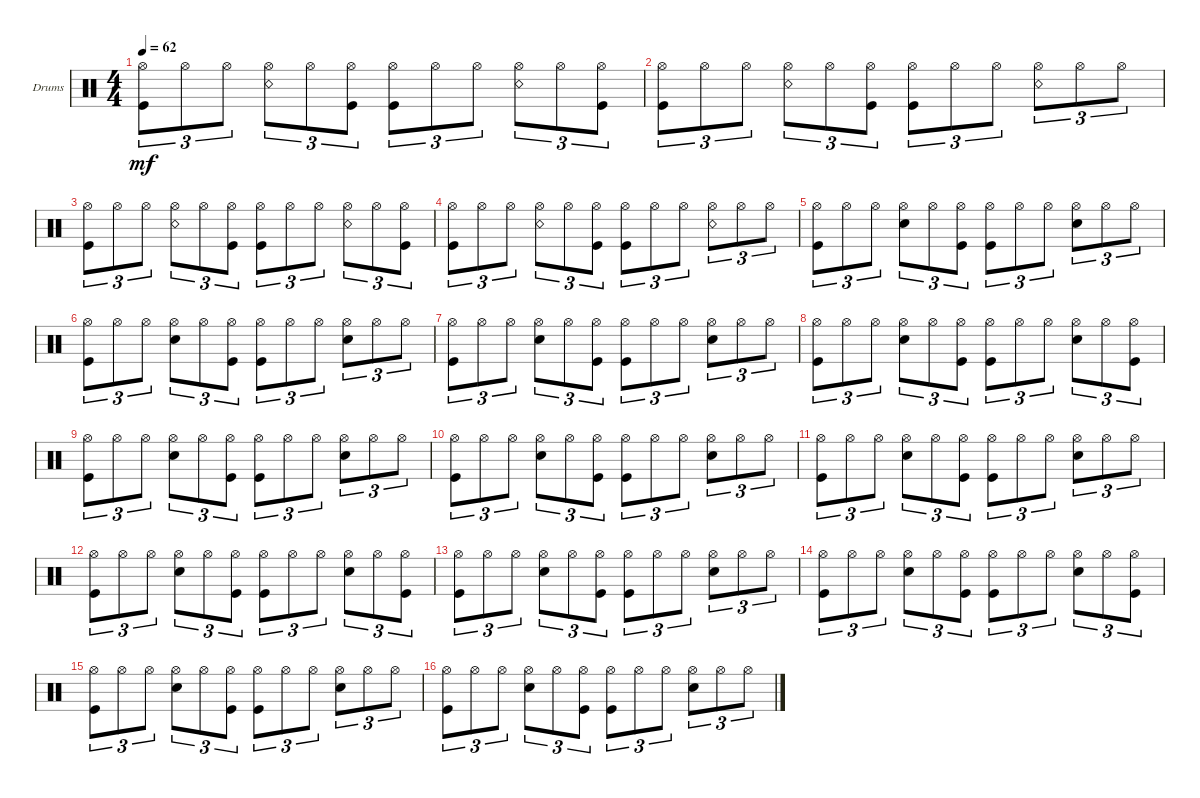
\defaultSystemsLayout 4
\bracketExtendMode groupsimilarinstruments
\firstSystemTrackNameOrientation horizontal
\otherSystemsTrackNameOrientation horizontal
\track ("Drumkit" "Drums") {instrument percussion}
\staff {score}
\articulation defaults
\ts (4 4)
\tempo 62
\clef neutral
\ks c
("Hi-Hat (open)" "Kick (hit)").8{tu (3 2) dy mf} "Hi-Hat (open)".8{tu (3 2)} "Hi-Hat (open)".8{tu (3 2)} ("Hi-Hat (open)" "Snare (rim shot)").8{tu (3 2)} "Hi-Hat (open)".8{tu (3 2)} ("Hi-Hat (open)" "Kick (hit)").8{tu (3 2)} ("Hi-Hat (open)" "Kick (hit)").8{tu (3 2)} "Hi-Hat (open)".8{tu (3 2)} "Hi-Hat (open)".8{tu (3 2)} ("Hi-Hat (open)" "Snare (rim shot)").8{tu (3 2)} "Hi-Hat (open)".8{tu (3 2)} ("Hi-Hat (open)" "Kick (hit)").8{tu (3 2)} |
("Hi-Hat (open)" "Kick (hit)").8{tu (3 2)} "Hi-Hat (open)".8{tu (3 2)} "Hi-Hat (open)".8{tu (3 2)} ("Hi-Hat (open)" "Snare (rim shot)").8{tu (3 2)} "Hi-Hat (open)".8{tu (3 2)} ("Hi-Hat (open)" "Kick (hit)").8{tu (3 2)} ("Hi-Hat (open)" "Kick (hit)").8{tu (3 2)} "Hi-Hat (open)".8{tu (3 2)} "Hi-Hat (open)".8{tu (3 2)} ("Hi-Hat (open)" "Snare (rim shot)").8{tu (3 2)} "Hi-Hat (open)".8{tu (3 2)} "Hi-Hat (open)".8{tu (3 2)} |
("Hi-Hat (open)" "Kick (hit)").8{tu (3 2)} "Hi-Hat (open)".8{tu (3 2)} "Hi-Hat (open)".8{tu (3 2)} ("Hi-Hat (open)" "Snare (rim shot)").8{tu (3 2)} "Hi-Hat (open)".8{tu (3 2)} ("Hi-Hat (open)" "Kick (hit)").8{tu (3 2)} ("Hi-Hat (open)" "Kick (hit)").8{tu (3 2)} "Hi-Hat (open)".8{tu (3 2)} "Hi-Hat (open)".8{tu (3 2)} ("Hi-Hat (open)" "Snare (rim shot)").8{tu (3 2)} "Hi-Hat (open)".8{tu (3 2)} ("Hi-Hat (open)" "Kick (hit)").8{tu (3 2)} |
("Hi-Hat (open)" "Kick (hit)").8{tu (3 2)} "Hi-Hat (open)".8{tu (3 2)} "Hi-Hat (open)".8{tu (3 2)} ("Hi-Hat (open)" "Snare (rim shot)").8{tu (3 2)} "Hi-Hat (open)".8{tu (3 2)} ("Hi-Hat (open)" "Kick (hit)").8{tu (3 2)} ("Hi-Hat (open)" "Kick (hit)").8{tu (3 2)} "Hi-Hat (open)".8{tu (3 2)} "Hi-Hat (open)".8{tu (3 2)} ("Hi-Hat (open)" "Snare (rim shot)").8{tu (3 2)} "Hi-Hat (open)".8{tu (3 2)} "Hi-Hat (open)".8{tu (3 2)} |
("Hi-Hat (open)" "Kick (hit)").8{tu (3 2)} "Hi-Hat (open)".8{tu (3 2)} "Hi-Hat (open)".8{tu (3 2)} ("Hi-Hat (open)" "Snare (hit) 2").8{tu (3 2)} "Hi-Hat (open)".8{tu (3 2)} ("Hi-Hat (open)" "Kick (hit)").8{tu (3 2)} ("Hi-Hat (open)" "Kick (hit)").8{tu (3 2)} "Hi-Hat (open)".8{tu (3 2)} "Hi-Hat (open)".8{tu (3 2)} ("Hi-Hat (open)" "Snare (hit) 2").8{tu (3 2)} "Hi-Hat (open)".8{tu (3 2)} "Hi-Hat (open)".8{tu (3 2)} |
("Hi-Hat (open)" "Kick (hit)").8{tu (3 2)} "Hi-Hat (open)".8{tu (3 2)} "Hi-Hat (open)".8{tu (3 2)} ("Hi-Hat (open)" "Snare (hit) 2").8{tu (3 2)} "Hi-Hat (open)".8{tu (3 2)} ("Hi-Hat (open)" "Kick (hit)").8{tu (3 2)} ("Hi-Hat (open)" "Kick (hit)").8{tu (3 2)} "Hi-Hat (open)".8{tu (3 2)} "Hi-Hat (open)".8{tu (3 2)} ("Hi-Hat (open)" "Snare (hit) 2").8{tu (3 2)} "Hi-Hat (open)".8{tu (3 2)} "Hi-Hat (open)".8{tu (3 2)} |
("Hi-Hat (open)" "Kick (hit)").8{tu (3 2)} "Hi-Hat (open)".8{tu (3 2)} "Hi-Hat (open)".8{tu (3 2)} ("Hi-Hat (open)" "Snare (hit) 2").8{tu (3 2)} "Hi-Hat (open)".8{tu (3 2)} ("Hi-Hat (open)" "Kick (hit)").8{tu (3 2)} ("Hi-Hat (open)" "Kick (hit)").8{tu (3 2)} "Hi-Hat (open)".8{tu (3 2)} "Hi-Hat (open)".8{tu (3 2)} ("Hi-Hat (open)" "Snare (hit) 2").8{tu (3 2)} "Hi-Hat (open)".8{tu (3 2)} "Hi-Hat (open)".8{tu (3 2)} |
("Hi-Hat (open)" "Kick (hit)").8{tu (3 2)} "Hi-Hat (open)".8{tu (3 2)} "Hi-Hat (open)".8{tu (3 2)} ("Hi-Hat (open)" "Snare (hit) 2").8{tu (3 2)} "Hi-Hat (open)".8{tu (3 2)} ("Hi-Hat (open)" "Kick (hit)").8{tu (3 2)} ("Hi-Hat (open)" "Kick (hit)").8{tu (3 2)} "Hi-Hat (open)".8{tu (3 2)} "Hi-Hat (open)".8{tu (3 2)} ("Hi-Hat (open)" "Snare (hit) 2").8{tu (3 2)} "Hi-Hat (open)".8{tu (3 2)} ("Hi-Hat (open)" "Kick (hit)").8{tu (3 2)} |
("Hi-Hat (open)" "Kick (hit)").8{tu (3 2)} "Hi-Hat (open)".8{tu (3 2)} "Hi-Hat (open)".8{tu (3 2)} ("Hi-Hat (open)" "Snare (hit) 2").8{tu (3 2)} "Hi-Hat (open)".8{tu (3 2)} ("Hi-Hat (open)" "Kick (hit)").8{tu (3 2)} ("Hi-Hat (open)" "Kick (hit)").8{tu (3 2)} "Hi-Hat (open)".8{tu (3 2)} "Hi-Hat (open)".8{tu (3 2)} ("Hi-Hat (open)" "Snare (hit) 2").8{tu (3 2)} "Hi-Hat (open)".8{tu (3 2)} "Hi-Hat (open)".8{tu (3 2)} |
("Hi-Hat (open)" "Kick (hit)").8{tu (3 2)} "Hi-Hat (open)".8{tu (3 2)} "Hi-Hat (open)".8{tu (3 2)} ("Hi-Hat (open)" "Snare (hit) 2").8{tu (3 2)} "Hi-Hat (open)".8{tu (3 2)} ("Hi-Hat (open)" "Kick (hit)").8{tu (3 2)} ("Hi-Hat (open)" "Kick (hit)").8{tu (3 2)} "Hi-Hat (open)".8{tu (3 2)} "Hi-Hat (open)".8{tu (3 2)} ("Hi-Hat (open)" "Snare (hit) 2").8{tu (3 2)} "Hi-Hat (open)".8{tu (3 2)} "Hi-Hat (open)".8{tu (3 2)} |
("Hi-Hat (open)" "Kick (hit)").8{tu (3 2)} "Hi-Hat (open)".8{tu (3 2)} "Hi-Hat (open)".8{tu (3 2)} ("Hi-Hat (open)" "Snare (hit) 2").8{tu (3 2)} "Hi-Hat (open)".8{tu (3 2)} ("Hi-Hat (open)" "Kick (hit)").8{tu (3 2)} ("Hi-Hat (open)" "Kick (hit)").8{tu (3 2)} "Hi-Hat (open)".8{tu (3 2)} "Hi-Hat (open)".8{tu (3 2)} ("Hi-Hat (open)" "Snare (hit) 2").8{tu (3 2)} "Hi-Hat (open)".8{tu (3 2)} "Hi-Hat (open)".8{tu (3 2)} |
("Hi-Hat (open)" "Kick (hit)").8{tu (3 2)} "Hi-Hat (open)".8{tu (3 2)} "Hi-Hat (open)".8{tu (3 2)} ("Hi-Hat (open)" "Snare (hit) 2").8{tu (3 2)} "Hi-Hat (open)".8{tu (3 2)} ("Hi-Hat (open)" "Kick (hit)").8{tu (3 2)} ("Hi-Hat (open)" "Kick (hit)").8{tu (3 2)} "Hi-Hat (open)".8{tu (3 2)} "Hi-Hat (open)".8{tu (3 2)} ("Hi-Hat (open)" "Snare (hit) 2").8{tu (3 2)} "Hi-Hat (open)".8{tu (3 2)} ("Hi-Hat (open)" "Kick (hit)").8{tu (3 2)} |
("Hi-Hat (open)" "Kick (hit)").8{tu (3 2)} "Hi-Hat (open)".8{tu (3 2)} "Hi-Hat (open)".8{tu (3 2)} ("Hi-Hat (open)" "Snare (hit) 2").8{tu (3 2)} "Hi-Hat (open)".8{tu (3 2)} ("Hi-Hat (open)" "Kick (hit)").8{tu (3 2)} ("Hi-Hat (open)" "Kick (hit)").8{tu (3 2)} "Hi-Hat (open)".8{tu (3 2)} "Hi-Hat (open)".8{tu (3 2)} ("Hi-Hat (open)" "Snare (hit) 2").8{tu (3 2)} "Hi-Hat (open)".8{tu (3 2)} "Hi-Hat (open)".8{tu (3 2)} |
("Hi-Hat (open)" "Kick (hit)").8{tu (3 2)} "Hi-Hat (open)".8{tu (3 2)} "Hi-Hat (open)".8{tu (3 2)} ("Hi-Hat (open)" "Snare (hit) 2").8{tu (3 2)} "Hi-Hat (open)".8{tu (3 2)} ("Hi-Hat (open)" "Kick (hit)").8{tu (3 2)} ("Hi-Hat (open)" "Kick (hit)").8{tu (3 2)} "Hi-Hat (open)".8{tu (3 2)} "Hi-Hat (open)".8{tu (3 2)} ("Hi-Hat (open)" "Snare (hit) 2").8{tu (3 2)} "Hi-Hat (open)".8{tu (3 2)} ("Hi-Hat (open)" "Kick (hit)").8{tu (3 2)} |
("Hi-Hat (open)" "Kick (hit)").8{tu (3 2)} "Hi-Hat (open)".8{tu (3 2)} "Hi-Hat (open)".8{tu (3 2)} ("Hi-Hat (open)" "Snare (hit) 2").8{tu (3 2)} "Hi-Hat (open)".8{tu (3 2)} ("Hi-Hat (open)" "Kick (hit)").8{tu (3 2)} ("Hi-Hat (open)" "Kick (hit)").8{tu (3 2)} "Hi-Hat (open)".8{tu (3 2)} "Hi-Hat (open)".8{tu (3 2)} ("Hi-Hat (open)" "Snare (hit) 2").8{tu (3 2)} "Hi-Hat (open)".8{tu (3 2)} "Hi-Hat (open)".8{tu (3 2)} |
("Hi-Hat (open)" "Kick (hit)").8{tu (3 2)} "Hi-Hat (open)".8{tu (3 2)} "Hi-Hat (open)".8{tu (3 2)} ("Hi-Hat (open)" "Snare (hit) 2").8{tu (3 2)} "Hi-Hat (open)".8{tu (3 2)} ("Hi-Hat (open)" "Kick (hit)").8{tu (3 2)} ("Hi-Hat (open)" "Kick (hit)").8{tu (3 2)} "Hi-Hat (open)".8{tu (3 2)} "Hi-Hat (open)".8{tu (3 2)} ("Hi-Hat (open)" "Snare (hit) 2").8{tu (3 2)} "Hi-Hat (open)".8{tu (3 2)} "Hi-Hat (open)".8{tu (3 2)}
